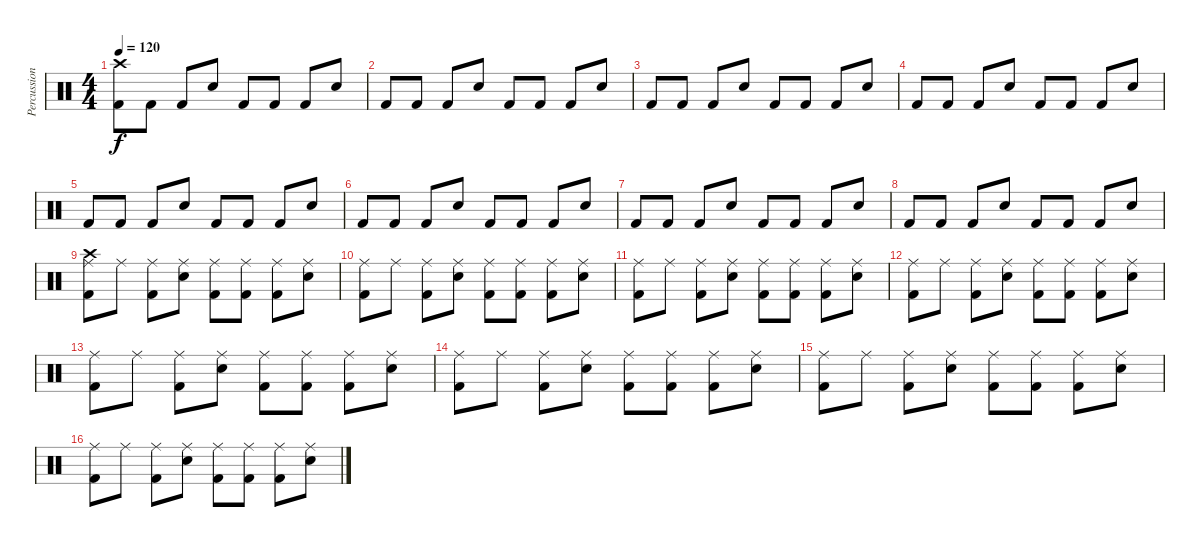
\track ("Percussions" "Percussion") {instrument percussion}
\staff {score}
\articulation defaults
\ts (4 4)
\tempo 120
\clef neutral
\ks c
("Crash high (hit)" "Kick (hit) 2").8{dy f} "Kick (hit) 2".8 "Kick (hit) 2".8 "Electric Snare (hit)".8 "Kick (hit) 2".8 "Kick (hit) 2".8 "Kick (hit) 2".8 "Electric Snare (hit)".8 |
"Kick (hit) 2".8 "Kick (hit) 2".8 "Kick (hit) 2".8 "Electric Snare (hit)".8 "Kick (hit) 2".8 "Kick (hit) 2".8 "Kick (hit) 2".8 "Electric Snare (hit)".8 |
"Kick (hit) 2".8 "Kick (hit) 2".8 "Kick (hit) 2".8 "Electric Snare (hit)".8 "Kick (hit) 2".8 "Kick (hit) 2".8 "Kick (hit) 2".8 "Electric Snare (hit)".8 |
"Kick (hit) 2".8 "Kick (hit) 2".8 "Kick (hit) 2".8 "Electric Snare (hit)".8 "Kick (hit) 2".8 "Kick (hit) 2".8 "Kick (hit) 2".8 "Electric Snare (hit)".8 |
"Kick (hit) 2".8 "Kick (hit) 2".8 "Kick (hit) 2".8 "Electric Snare (hit)".8 "Kick (hit) 2".8 "Kick (hit) 2".8 "Kick (hit) 2".8 "Electric Snare (hit)".8 |
"Kick (hit) 2".8 "Kick (hit) 2".8 "Kick (hit) 2".8 "Electric Snare (hit)".8 "Kick (hit) 2".8 "Kick (hit) 2".8 "Kick (hit) 2".8 "Electric Snare (hit)".8 |
"Kick (hit) 2".8 "Kick (hit) 2".8 "Kick (hit) 2".8 "Electric Snare (hit)".8 "Kick (hit) 2".8 "Kick (hit) 2".8 "Kick (hit) 2".8 "Electric Snare (hit)".8 |
"Kick (hit) 2".8 "Kick (hit) 2".8 "Kick (hit) 2".8 "Electric Snare (hit)".8 "Kick (hit) 2".8 "Kick (hit) 2".8 "Kick (hit) 2".8 "Electric Snare (hit)".8 |
("Crash high (hit)" "Ride (middle)" "Kick (hit) 2").8 "Ride (middle)".8 ("Ride (middle)" "Kick (hit) 2").8 ("Ride (middle)" "Electric Snare (hit)").8 ("Ride (middle)" "Kick (hit) 2").8 ("Ride (middle)" "Kick (hit) 2").8 ("Ride (middle)" "Kick (hit) 2").8 ("Ride (middle)" "Electric Snare (hit)").8 |
("Ride (middle)" "Kick (hit) 2").8 "Ride (middle)".8 ("Ride (middle)" "Kick (hit) 2").8 ("Ride (middle)" "Electric Snare (hit)").8 ("Ride (middle)" "Kick (hit) 2").8 ("Ride (middle)" "Kick (hit) 2").8 ("Ride (middle)" "Kick (hit) 2").8 ("Ride (middle)" "Electric Snare (hit)").8 |
("Ride (middle)" "Kick (hit) 2").8 "Ride (middle)".8 ("Ride (middle)" "Kick (hit) 2").8 ("Ride (middle)" "Electric Snare (hit)").8 ("Ride (middle)" "Kick (hit) 2").8 ("Ride (middle)" "Kick (hit) 2").8 ("Ride (middle)" "Kick (hit) 2").8 ("Ride (middle)" "Electric Snare (hit)").8 |
("Ride (middle)" "Kick (hit) 2").8 "Ride (middle)".8 ("Ride (middle)" "Kick (hit) 2").8 ("Ride (middle)" "Electric Snare (hit)").8 ("Ride (middle)" "Kick (hit) 2").8 ("Ride (middle)" "Kick (hit) 2").8 ("Ride (middle)" "Kick (hit) 2").8 ("Ride (middle)" "Electric Snare (hit)").8 |
("Ride (middle)" "Kick (hit) 2").8 "Ride (middle)".8 ("Ride (middle)" "Kick (hit) 2").8 ("Ride (middle)" "Electric Snare (hit)").8 ("Ride (middle)" "Kick (hit) 2").8 ("Ride (middle)" "Kick (hit) 2").8 ("Ride (middle)" "Kick (hit) 2").8 ("Ride (middle)" "Electric Snare (hit)").8 |
("Ride (middle)" "Kick (hit) 2").8 "Ride (middle)".8 ("Ride (middle)" "Kick (hit) 2").8 ("Ride (middle)" "Electric Snare (hit)").8 ("Ride (middle)" "Kick (hit) 2").8 ("Ride (middle)" "Kick (hit) 2").8 ("Ride (middle)" "Kick (hit) 2").8 ("Ride (middle)" "Electric Snare (hit)").8 |
("Ride (middle)" "Kick (hit) 2").8 "Ride (middle)".8 ("Ride (middle)" "Kick (hit) 2").8 ("Ride (middle)" "Electric Snare (hit)").8 ("Ride (middle)" "Kick (hit) 2").8 ("Ride (middle)" "Kick (hit) 2").8 ("Ride (middle)" "Kick (hit) 2").8 ("Ride (middle)" "Electric Snare (hit)").8 |
("Ride (middle)" "Kick (hit) 2").8 "Ride (middle)".8 ("Ride (middle)" "Kick (hit) 2").8 ("Ride (middle)" "Electric Snare (hit)").8 ("Ride (middle)" "Kick (hit) 2").8 ("Ride (middle)" "Kick (hit) 2").8 ("Ride (middle)" "Kick (hit) 2").8 ("Ride (middle)" "Electric Snare (hit)").8
